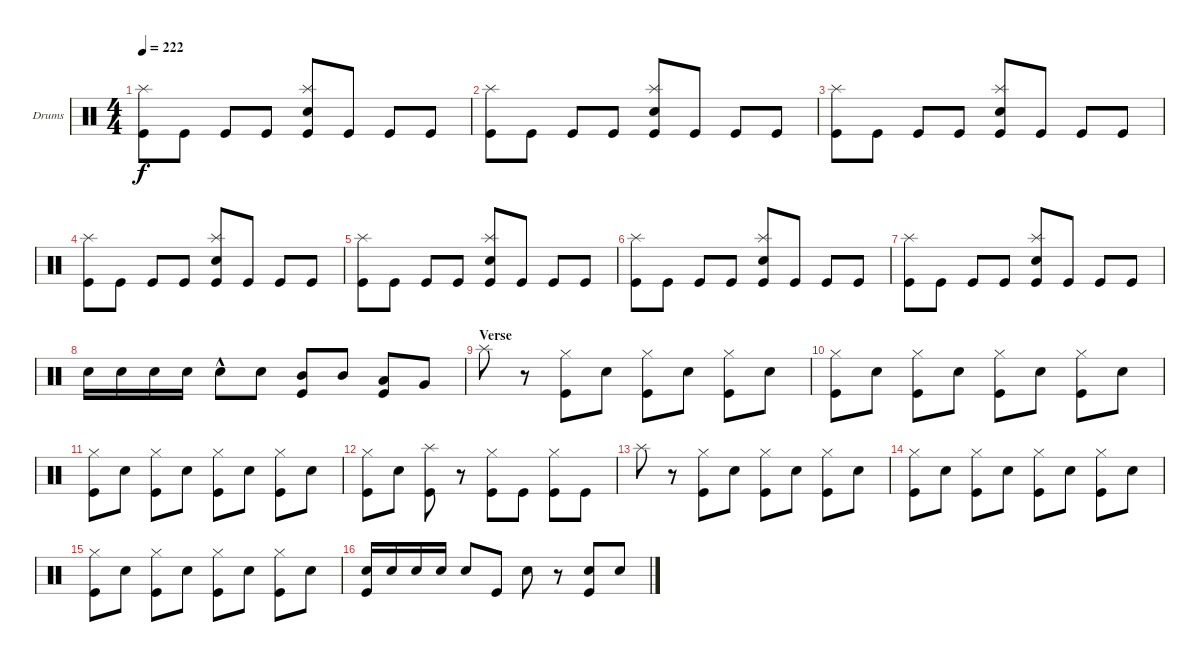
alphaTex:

\defaultSystemsLayout 4
\bracketExtendMode groupsimilarinstruments
\firstSystemTrackNameOrientation horizontal
\otherSystemsTrackNameOrientation horizontal
\track ("Drumkit" "Drums") {mute instrument percussion}
\staff {score}
\articulation defaults
\ts (4 4)
\tempo 222
\clef neutral
\ks c
("Kick (hit)" "Splash (hit)").8{dy f} "Kick (hit)".8 "Kick (hit)".8 "Kick (hit)".8 ("Kick (hit)" "Splash (hit)" "Snare (hit) 2").8 "Kick (hit)".8 "Kick (hit)".8 "Kick (hit)".8 |
("Kick (hit)" "Splash (hit)").8 "Kick (hit)".8 "Kick (hit)".8 "Kick (hit)".8 ("Kick (hit)" "Splash (hit)" "Snare (hit) 2").8 "Kick (hit)".8 "Kick (hit)".8 "Kick (hit)".8 |
("Kick (hit)" "Splash (hit)").8 "Kick (hit)".8 "Kick (hit)".8 "Kick (hit)".8 ("Kick (hit)" "Splash (hit)" "Snare (hit) 2").8 "Kick (hit)".8 "Kick (hit)".8 "Kick (hit)".8 |
("Kick (hit)" "Splash (hit)").8 "Kick (hit)".8 "Kick (hit)".8 "Kick (hit)".8 ("Kick (hit)" "Splash (hit)" "Snare (hit) 2").8 "Kick (hit)".8 "Kick (hit)".8 "Kick (hit)".8 |
("Kick (hit)" "Splash (hit)").8 "Kick (hit)".8 "Kick (hit)".8 "Kick (hit)".8 ("Kick (hit)" "Splash (hit)" "Snare (hit) 2").8 "Kick (hit)".8 "Kick (hit)".8 "Kick (hit)".8 |
("Kick (hit)" "Splash (hit)").8 "Kick (hit)".8 "Kick (hit)".8 "Kick (hit)".8 ("Kick (hit)" "Splash (hit)" "Snare (hit) 2").8 "Kick (hit)".8 "Kick (hit)".8 "Kick (hit)".8 |
("Kick (hit)" "Splash (hit)").8 "Kick (hit)".8 "Kick (hit)".8 "Kick (hit)".8 ("Kick (hit)" "Splash (hit)" "Snare (hit) 2").8 "Kick (hit)".8 "Kick (hit)".8 "Kick (hit)".8 |
"Snare (hit) 2".16 "Snare (hit) 2".16 "Snare (hit) 2".16 "Snare (hit) 2".16 "Snare (hit) 2"{hac}.8 "Snare (hit) 2".8 ("Mid Tom (hit)" "Kick (hit)").8 "Mid Tom (hit)".8 ("Low Tom (hit)" "Kick (hit)").8 "Very Low Tom (hit)".8 |
\section ("" "Verse")
"Splash (hit)".8 r.8 ("Hi-Hat (closed)" "Kick (hit)").8 "Snare (hit) 2".8 ("Hi-Hat (closed)" "Kick (hit)").8 "Snare (hit) 2".8 ("Hi-Hat (closed)" "Kick (hit)").8 "Snare (hit) 2".8 |
("Hi-Hat (closed)" "Kick (hit)").8 "Snare (hit) 2".8 ("Hi-Hat (closed)" "Kick (hit)").8 "Snare (hit) 2".8 ("Hi-Hat (closed)" "Kick (hit)").8 "Snare (hit) 2".8 ("Hi-Hat (closed)" "Kick (hit)").8 "Snare (hit) 2".8 |
("Hi-Hat (closed)" "Kick (hit)").8 "Snare (hit) 2".8 ("Hi-Hat (closed)" "Kick (hit)").8 "Snare (hit) 2".8 ("Hi-Hat (closed)" "Kick (hit)").8 "Snare (hit) 2".8 ("Hi-Hat (closed)" "Kick (hit)").8 "Snare (hit) 2".8 |
("Hi-Hat (closed)" "Kick (hit)").8 "Snare (hit) 2".8 ("Kick (hit)" "Splash (hit)").8 r.8 ("Hi-Hat (closed)" "Kick (hit)").8 "Kick (hit)".8 ("Hi-Hat (closed)" "Kick (hit)").8 "Kick (hit)".8 |
"Splash (hit)".8 r.8 ("Hi-Hat (closed)" "Kick (hit)").8 "Snare (hit) 2".8 ("Hi-Hat (closed)" "Kick (hit)").8 "Snare (hit) 2".8 ("Hi-Hat (closed)" "Kick (hit)").8 "Snare (hit) 2".8 |
("Hi-Hat (closed)" "Kick (hit)").8 "Snare (hit) 2".8 ("Hi-Hat (closed)" "Kick (hit)").8 "Snare (hit) 2".8 ("Hi-Hat (closed)" "Kick (hit)").8 "Snare (hit) 2".8 ("Hi-Hat (closed)" "Kick (hit)").8 "Snare (hit) 2".8 |
("Hi-Hat (closed)" "Kick (hit)").8 "Snare (hit) 2".8 ("Hi-Hat (closed)" "Kick (hit)").8 "Snare (hit) 2".8 ("Hi-Hat (closed)" "Kick (hit)").8 "Snare (hit) 2".8 ("Hi-Hat (closed)" "Kick (hit)").8 "Snare (hit) 2".8 |
("Kick (hit)" "Snare (hit) 2").16 "Snare (hit) 2".16 "Snare (hit) 2".16 "Snare (hit) 2".16 "Snare (hit) 2".8 "Kick (hit)".8 "Snare (hit) 2".8 r.8 ("Snare (hit) 2" "Kick (hit)").8 "Snare (hit) 2".8
